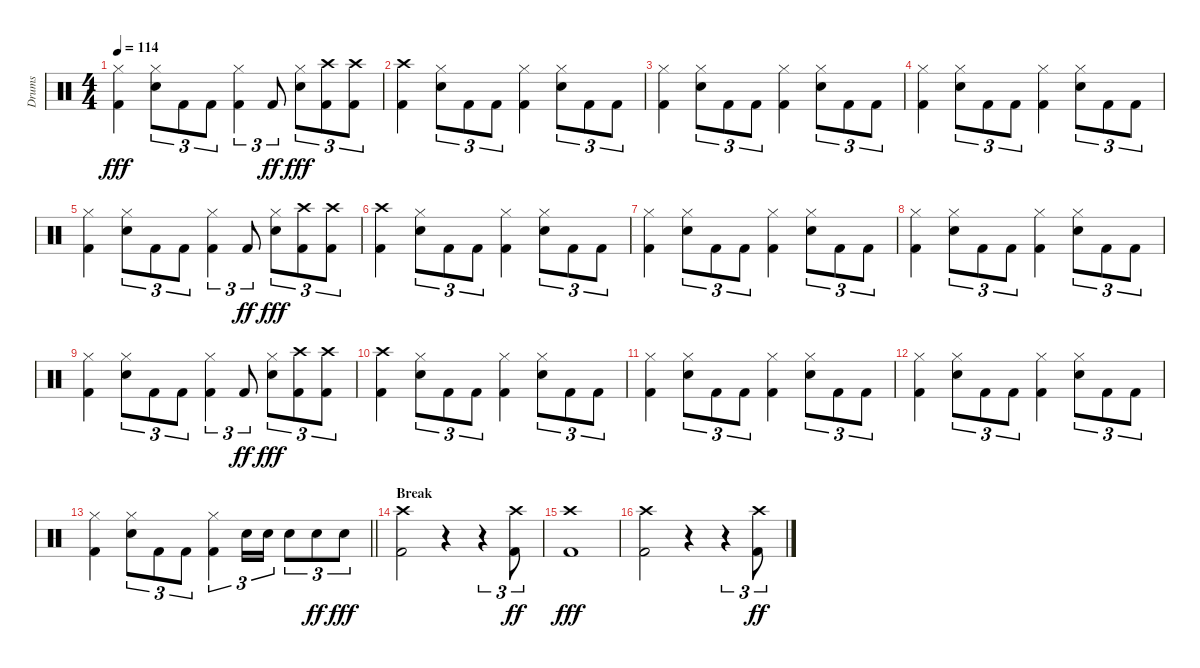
\track ("Drums" "Drums") {instrument percussion}
\staff {score}
\articulation defaults
\ts (4 4)
\tempo 114
\clef neutral
\ks c
("Hi-Hat (closed)" "Kick (hit) 2").4{dy fff} ("Hi-Hat (closed)" "Snare (hit) 2").8{tu (3 2)} "Kick (hit) 2".8{tu (3 2)} "Kick (hit) 2".8{tu (3 2)} ("Hi-Hat (closed)" "Kick (hit) 2").4{tu (3 2)} "Kick (hit) 2".8{tu (3 2) dy ff} ("Hi-Hat (closed)" "Snare (hit) 2").8{tu (3 2) dy fff} ("Crash high (hit)" "Kick (hit) 2").8{tu (3 2)} ("Crash high (hit)" "Kick (hit) 2").8{tu (3 2)} |
("Crash high (hit)" "Kick (hit) 2").4 ("Hi-Hat (closed)" "Snare (hit) 2").8{tu (3 2)} "Kick (hit) 2".8{tu (3 2)} "Kick (hit) 2".8{tu (3 2)} ("Hi-Hat (closed)" "Kick (hit) 2").4 ("Hi-Hat (closed)" "Snare (hit) 2").8{tu (3 2)} "Kick (hit) 2".8{tu (3 2)} "Kick (hit) 2".8{tu (3 2)} |
("Hi-Hat (closed)" "Kick (hit) 2").4 ("Hi-Hat (closed)" "Snare (hit) 2").8{tu (3 2)} "Kick (hit) 2".8{tu (3 2)} "Kick (hit) 2".8{tu (3 2)} ("Hi-Hat (closed)" "Kick (hit) 2").4 ("Hi-Hat (closed)" "Snare (hit) 2").8{tu (3 2)} "Kick (hit) 2".8{tu (3 2)} "Kick (hit) 2".8{tu (3 2)} |
("Hi-Hat (closed)" "Kick (hit) 2").4 ("Hi-Hat (closed)" "Snare (hit) 2").8{tu (3 2)} "Kick (hit) 2".8{tu (3 2)} "Kick (hit) 2".8{tu (3 2)} ("Hi-Hat (closed)" "Kick (hit) 2").4 ("Hi-Hat (closed)" "Snare (hit) 2").8{tu (3 2)} "Kick (hit) 2".8{tu (3 2)} "Kick (hit) 2".8{tu (3 2)} |
("Hi-Hat (closed)" "Kick (hit) 2").4 ("Hi-Hat (closed)" "Snare (hit) 2").8{tu (3 2)} "Kick (hit) 2".8{tu (3 2)} "Kick (hit) 2".8{tu (3 2)} ("Hi-Hat (closed)" "Kick (hit) 2").4{tu (3 2)} "Kick (hit) 2".8{tu (3 2) dy ff} ("Hi-Hat (closed)" "Snare (hit) 2").8{tu (3 2) dy fff} ("Crash high (hit)" "Kick (hit) 2").8{tu (3 2)} ("Crash high (hit)" "Kick (hit) 2").8{tu (3 2)} |
("Crash high (hit)" "Kick (hit) 2").4 ("Hi-Hat (closed)" "Snare (hit) 2").8{tu (3 2)} "Kick (hit) 2".8{tu (3 2)} "Kick (hit) 2".8{tu (3 2)} ("Hi-Hat (closed)" "Kick (hit) 2").4 ("Hi-Hat (closed)" "Snare (hit) 2").8{tu (3 2)} "Kick (hit) 2".8{tu (3 2)} "Kick (hit) 2".8{tu (3 2)} |
("Hi-Hat (closed)" "Kick (hit) 2").4 ("Hi-Hat (closed)" "Snare (hit) 2").8{tu (3 2)} "Kick (hit) 2".8{tu (3 2)} "Kick (hit) 2".8{tu (3 2)} ("Hi-Hat (closed)" "Kick (hit) 2").4 ("Hi-Hat (closed)" "Snare (hit) 2").8{tu (3 2)} "Kick (hit) 2".8{tu (3 2)} "Kick (hit) 2".8{tu (3 2)} |
("Hi-Hat (closed)" "Kick (hit) 2").4 ("Hi-Hat (closed)" "Snare (hit) 2").8{tu (3 2)} "Kick (hit) 2".8{tu (3 2)} "Kick (hit) 2".8{tu (3 2)} ("Hi-Hat (closed)" "Kick (hit) 2").4 ("Hi-Hat (closed)" "Snare (hit) 2").8{tu (3 2)} "Kick (hit) 2".8{tu (3 2)} "Kick (hit) 2".8{tu (3 2)} |
("Hi-Hat (closed)" "Kick (hit) 2").4 ("Hi-Hat (closed)" "Snare (hit) 2").8{tu (3 2)} "Kick (hit) 2".8{tu (3 2)} "Kick (hit) 2".8{tu (3 2)} ("Hi-Hat (closed)" "Kick (hit) 2").4{tu (3 2)} "Kick (hit) 2".8{tu (3 2) dy ff} ("Hi-Hat (closed)" "Snare (hit) 2").8{tu (3 2) dy fff} ("Crash high (hit)" "Kick (hit) 2").8{tu (3 2)} ("Crash high (hit)" "Kick (hit) 2").8{tu (3 2)} |
("Crash high (hit)" "Kick (hit) 2").4 ("Hi-Hat (closed)" "Snare (hit) 2").8{tu (3 2)} "Kick (hit) 2".8{tu (3 2)} "Kick (hit) 2".8{tu (3 2)} ("Hi-Hat (closed)" "Kick (hit) 2").4 ("Hi-Hat (closed)" "Snare (hit) 2").8{tu (3 2)} "Kick (hit) 2".8{tu (3 2)} "Kick (hit) 2".8{tu (3 2)} |
("Hi-Hat (closed)" "Kick (hit) 2").4 ("Hi-Hat (closed)" "Snare (hit) 2").8{tu (3 2)} "Kick (hit) 2".8{tu (3 2)} "Kick (hit) 2".8{tu (3 2)} ("Hi-Hat (closed)" "Kick (hit) 2").4 ("Hi-Hat (closed)" "Snare (hit) 2").8{tu (3 2)} "Kick (hit) 2".8{tu (3 2)} "Kick (hit) 2".8{tu (3 2)} |
("Hi-Hat (closed)" "Kick (hit) 2").4 ("Hi-Hat (closed)" "Snare (hit) 2").8{tu (3 2)} "Kick (hit) 2".8{tu (3 2)} "Kick (hit) 2".8{tu (3 2)} ("Hi-Hat (closed)" "Kick (hit) 2").4 ("Hi-Hat (closed)" "Snare (hit) 2").8{tu (3 2)} "Kick (hit) 2".8{tu (3 2)} "Kick (hit) 2".8{tu (3 2)} |
\barLineRight lightlight
("Hi-Hat (closed)" "Kick (hit) 2").4 ("Hi-Hat (closed)" "Snare (hit) 2").8{tu (3 2)} "Kick (hit) 2".8{tu (3 2)} "Kick (hit) 2".8{tu (3 2)} ("Hi-Hat (closed)" "Kick (hit) 2").4{tu (3 2)} "Snare (hit) 2".16{tu (3 2)} "Snare (hit) 2".16{tu (3 2)} "Snare (hit) 2".8{tu (3 2)} "Snare (hit) 2".8{tu (3 2) dy ff} "Snare (hit) 2".8{tu (3 2) dy fff} |
\section ("" "Break")
("Crash high (hit)" "Kick (hit) 2").2 r.4 r.4{tu (3 2)} ("Crash high (hit)" "Kick (hit) 2").8{tu (3 2) dy ff} |
("Crash high (hit)" "Kick (hit) 2").1{dy fff} |
("Crash high (hit)" "Kick (hit) 2").2 r.4 r.4{tu (3 2)} ("Crash high (hit)" "Kick (hit) 2").8{tu (3 2) dy ff}
